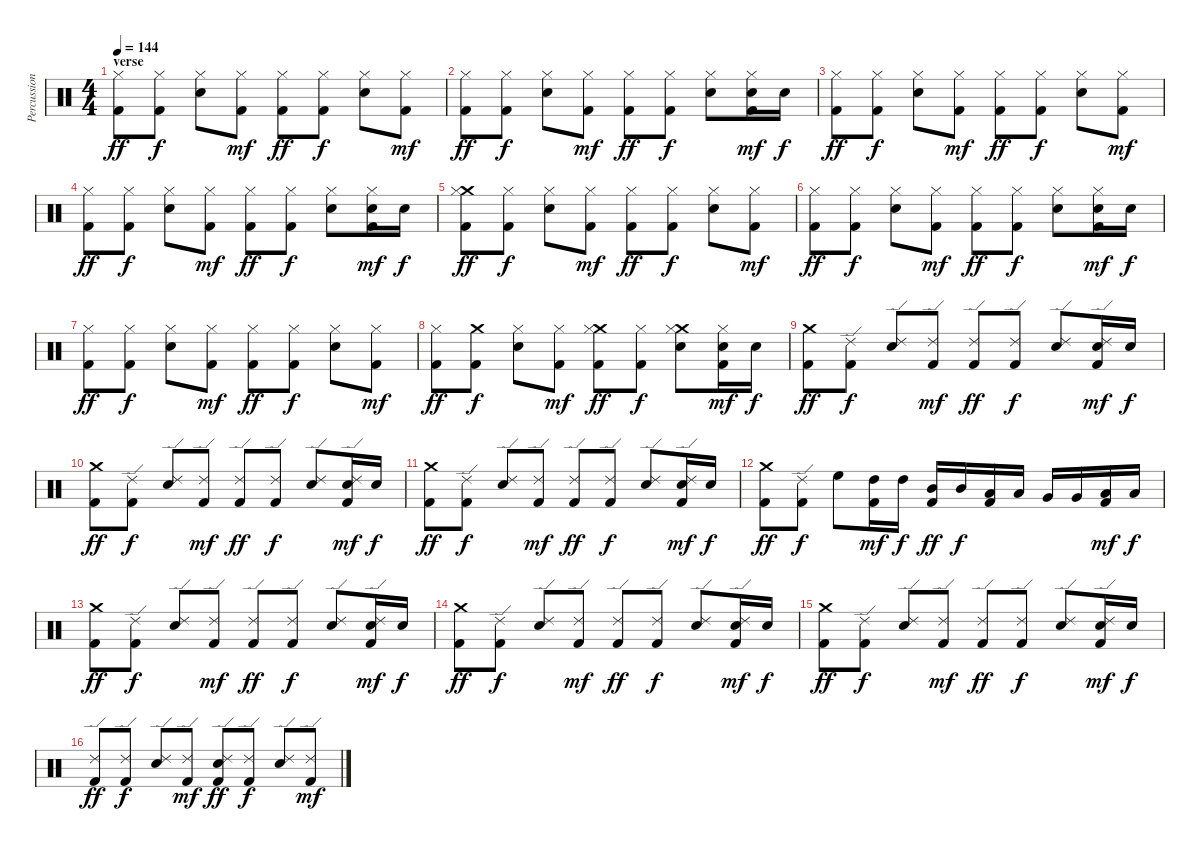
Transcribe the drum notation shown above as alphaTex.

\track ("Percussion" "Percussion") {instrument percussion}
\staff {score}
\articulation defaults
\ts (4 4)
\section ("" "verse")
\tempo 144
\clef neutral
\ks c
("Hi-Hat (closed)" "Kick (hit) 2").8{dy ff} ("Hi-Hat (closed)" "Kick (hit) 2").8{dy f} ("Hi-Hat (closed)" "Snare (hit) 2").8 ("Hi-Hat (closed)" "Kick (hit) 2").8{dy mf} ("Hi-Hat (closed)" "Kick (hit) 2").8{dy ff} ("Hi-Hat (closed)" "Kick (hit) 2").8{dy f} ("Hi-Hat (closed)" "Snare (hit) 2").8 ("Hi-Hat (closed)" "Kick (hit) 2").8{dy mf} |
("Hi-Hat (closed)" "Kick (hit) 2").8{dy ff} ("Hi-Hat (closed)" "Kick (hit) 2").8{dy f} ("Hi-Hat (closed)" "Snare (hit) 2").8 ("Hi-Hat (closed)" "Kick (hit) 2").8{dy mf} ("Hi-Hat (closed)" "Kick (hit) 2").8{dy ff} ("Hi-Hat (closed)" "Kick (hit) 2").8{dy f} ("Hi-Hat (closed)" "Snare (hit) 2").8 ("Hi-Hat (closed)" "Snare (hit) 2" "Kick (hit) 2").16{dy mf} "Snare (hit) 2".16{dy f} |
("Hi-Hat (closed)" "Kick (hit) 2").8{dy ff} ("Hi-Hat (closed)" "Kick (hit) 2").8{dy f} ("Hi-Hat (closed)" "Snare (hit) 2").8 ("Hi-Hat (closed)" "Kick (hit) 2").8{dy mf} ("Hi-Hat (closed)" "Kick (hit) 2").8{dy ff} ("Hi-Hat (closed)" "Kick (hit) 2").8{dy f} ("Hi-Hat (closed)" "Snare (hit) 2").8 ("Hi-Hat (closed)" "Kick (hit) 2").8{dy mf} |
("Hi-Hat (closed)" "Kick (hit) 2").8{dy ff} ("Hi-Hat (closed)" "Kick (hit) 2").8{dy f} ("Hi-Hat (closed)" "Snare (hit) 2").8 ("Hi-Hat (closed)" "Kick (hit) 2").8{dy mf} ("Hi-Hat (closed)" "Kick (hit) 2").8{dy ff} ("Hi-Hat (closed)" "Kick (hit) 2").8{dy f} ("Hi-Hat (closed)" "Snare (hit) 2").8 ("Hi-Hat (closed)" "Snare (hit) 2" "Kick (hit) 2").16{dy mf} "Snare (hit) 2".16{dy f} |
("Crash medium (hit)" "Hi-Hat (closed)" "Kick (hit) 2").8{dy ff} ("Hi-Hat (closed)" "Kick (hit) 2").8{dy f} ("Hi-Hat (closed)" "Snare (hit) 2").8 ("Hi-Hat (closed)" "Kick (hit) 2").8{dy mf} ("Hi-Hat (closed)" "Kick (hit) 2").8{dy ff} ("Hi-Hat (closed)" "Kick (hit) 2").8{dy f} ("Hi-Hat (closed)" "Snare (hit) 2").8 ("Hi-Hat (closed)" "Kick (hit) 2").8{dy mf} |
("Hi-Hat (closed)" "Kick (hit) 2").8{dy ff} ("Hi-Hat (closed)" "Kick (hit) 2").8{dy f} ("Hi-Hat (closed)" "Snare (hit) 2").8 ("Hi-Hat (closed)" "Kick (hit) 2").8{dy mf} ("Hi-Hat (closed)" "Kick (hit) 2").8{dy ff} ("Hi-Hat (closed)" "Kick (hit) 2").8{dy f} ("Hi-Hat (closed)" "Snare (hit) 2").8 ("Hi-Hat (closed)" "Snare (hit) 2" "Kick (hit) 2").16{dy mf} "Snare (hit) 2".16{dy f} |
("Hi-Hat (closed)" "Kick (hit) 2").8{dy ff} ("Hi-Hat (closed)" "Kick (hit) 2").8{dy f} ("Hi-Hat (closed)" "Snare (hit) 2").8 ("Hi-Hat (closed)" "Kick (hit) 2").8{dy mf} ("Hi-Hat (closed)" "Kick (hit) 2").8{dy ff} ("Hi-Hat (closed)" "Kick (hit) 2").8{dy f} ("Hi-Hat (closed)" "Snare (hit) 2").8 ("Hi-Hat (closed)" "Kick (hit) 2").8{dy mf} |
("Hi-Hat (closed)" "Kick (hit) 2").8{dy ff} ("Crash medium (hit)" "Kick (hit) 2").8{dy f} ("Hi-Hat (closed)" "Snare (hit) 2").8 ("Hi-Hat (closed)" "Kick (hit) 2").8{dy mf} ("Crash medium (hit)" "Hi-Hat (closed)" "Kick (hit) 2").8{dy ff} ("Hi-Hat (closed)" "Kick (hit) 2").8{dy f} ("Crash medium (hit)" "Hi-Hat (closed)" "Snare (hit) 2").8 ("Hi-Hat (closed)" "Snare (hit) 2" "Kick (hit) 2").16{dy mf} "Snare (hit) 2".16{dy f} |
("Crash medium (hit)" "Kick (hit) 2").8{dy ff} ("Ride (edge) 2" "Kick (hit) 2").8{dy f} ("Ride (edge) 2" "Snare (hit) 2").8 ("Ride (edge) 2" "Kick (hit) 2").8{dy mf} ("Ride (edge) 2" "Kick (hit) 2").8{dy ff} ("Ride (edge) 2" "Kick (hit) 2").8{dy f} ("Ride (edge) 2" "Snare (hit) 2").8 ("Ride (edge) 2" "Snare (hit) 2" "Kick (hit) 2").16{dy mf} "Snare (hit) 2".16{dy f} |
("Crash medium (hit)" "Kick (hit) 2").8{dy ff} ("Ride (edge) 2" "Kick (hit) 2").8{dy f} ("Ride (edge) 2" "Snare (hit) 2").8 ("Ride (edge) 2" "Kick (hit) 2").8{dy mf} ("Ride (edge) 2" "Kick (hit) 2").8{dy ff} ("Ride (edge) 2" "Kick (hit) 2").8{dy f} ("Ride (edge) 2" "Snare (hit) 2").8 ("Ride (edge) 2" "Snare (hit) 2" "Kick (hit) 2").16{dy mf} "Snare (hit) 2".16{dy f} |
("Crash medium (hit)" "Kick (hit) 2").8{dy ff} ("Ride (edge) 2" "Kick (hit) 2").8{dy f} ("Ride (edge) 2" "Snare (hit) 2").8 ("Ride (edge) 2" "Kick (hit) 2").8{dy mf} ("Ride (edge) 2" "Kick (hit) 2").8{dy ff} ("Ride (edge) 2" "Kick (hit) 2").8{dy f} ("Ride (edge) 2" "Snare (hit) 2").8 ("Ride (edge) 2" "Snare (hit) 2" "Kick (hit) 2").16{dy mf} "Snare (hit) 2".16{dy f} |
("Crash medium (hit)" "Kick (hit) 2").8{dy ff} ("Ride (edge) 2" "Kick (hit) 2").8{dy f} "High Floor Tom (hit)".8 ("High Tom (hit)" "Kick (hit) 2").16{dy mf} "High Tom (hit)".16{dy f} ("Mid Tom (hit)" "Kick (hit) 2").16{dy ff} "Mid Tom (hit)".16{dy f} ("Low Tom (hit)" "Kick (hit) 2").16 "Low Tom (hit)".16 "Very Low Tom (hit)".16 "Very Low Tom (hit)".16 ("Low Floor Tom (hit)" "Kick (hit) 2").16{dy mf} "Low Floor Tom (hit)".16{dy f} |
("Crash medium (hit)" "Kick (hit) 2").8{dy ff} ("Ride (edge) 2" "Kick (hit) 2").8{dy f} ("Ride (edge) 2" "Snare (hit) 2").8 ("Ride (edge) 2" "Kick (hit) 2").8{dy mf} ("Ride (edge) 2" "Kick (hit) 2").8{dy ff} ("Ride (edge) 2" "Kick (hit) 2").8{dy f} ("Ride (edge) 2" "Snare (hit) 2").8 ("Ride (edge) 2" "Snare (hit) 2" "Kick (hit) 2").16{dy mf} "Snare (hit) 2".16{dy f} |
("Crash medium (hit)" "Kick (hit) 2").8{dy ff} ("Ride (edge) 2" "Kick (hit) 2").8{dy f} ("Ride (edge) 2" "Snare (hit) 2").8 ("Ride (edge) 2" "Kick (hit) 2").8{dy mf} ("Ride (edge) 2" "Kick (hit) 2").8{dy ff} ("Ride (edge) 2" "Kick (hit) 2").8{dy f} ("Ride (edge) 2" "Snare (hit) 2").8 ("Ride (edge) 2" "Snare (hit) 2" "Kick (hit) 2").16{dy mf} "Snare (hit) 2".16{dy f} |
("Crash medium (hit)" "Kick (hit) 2").8{dy ff} ("Ride (edge) 2" "Kick (hit) 2").8{dy f} ("Ride (edge) 2" "Snare (hit) 2").8 ("Ride (edge) 2" "Kick (hit) 2").8{dy mf} ("Ride (edge) 2" "Kick (hit) 2").8{dy ff} ("Ride (edge) 2" "Kick (hit) 2").8{dy f} ("Ride (edge) 2" "Snare (hit) 2").8 ("Ride (edge) 2" "Snare (hit) 2" "Kick (hit) 2").16{dy mf} "Snare (hit) 2".16{dy f} |
("Ride (edge) 2" "Kick (hit) 2").8{dy ff} ("Ride (edge) 2" "Kick (hit) 2").8{dy f} ("Ride (edge) 2" "Snare (hit) 2").8 ("Ride (edge) 2" "Kick (hit) 2").8{dy mf} ("Ride (edge) 2" "Snare (hit) 2" "Kick (hit) 2").8{dy ff} ("Ride (edge) 2" "Kick (hit) 2").8{dy f} ("Ride (edge) 2" "Snare (hit) 2").8 ("Ride (edge) 2" "Kick (hit) 2").8{dy mf}
